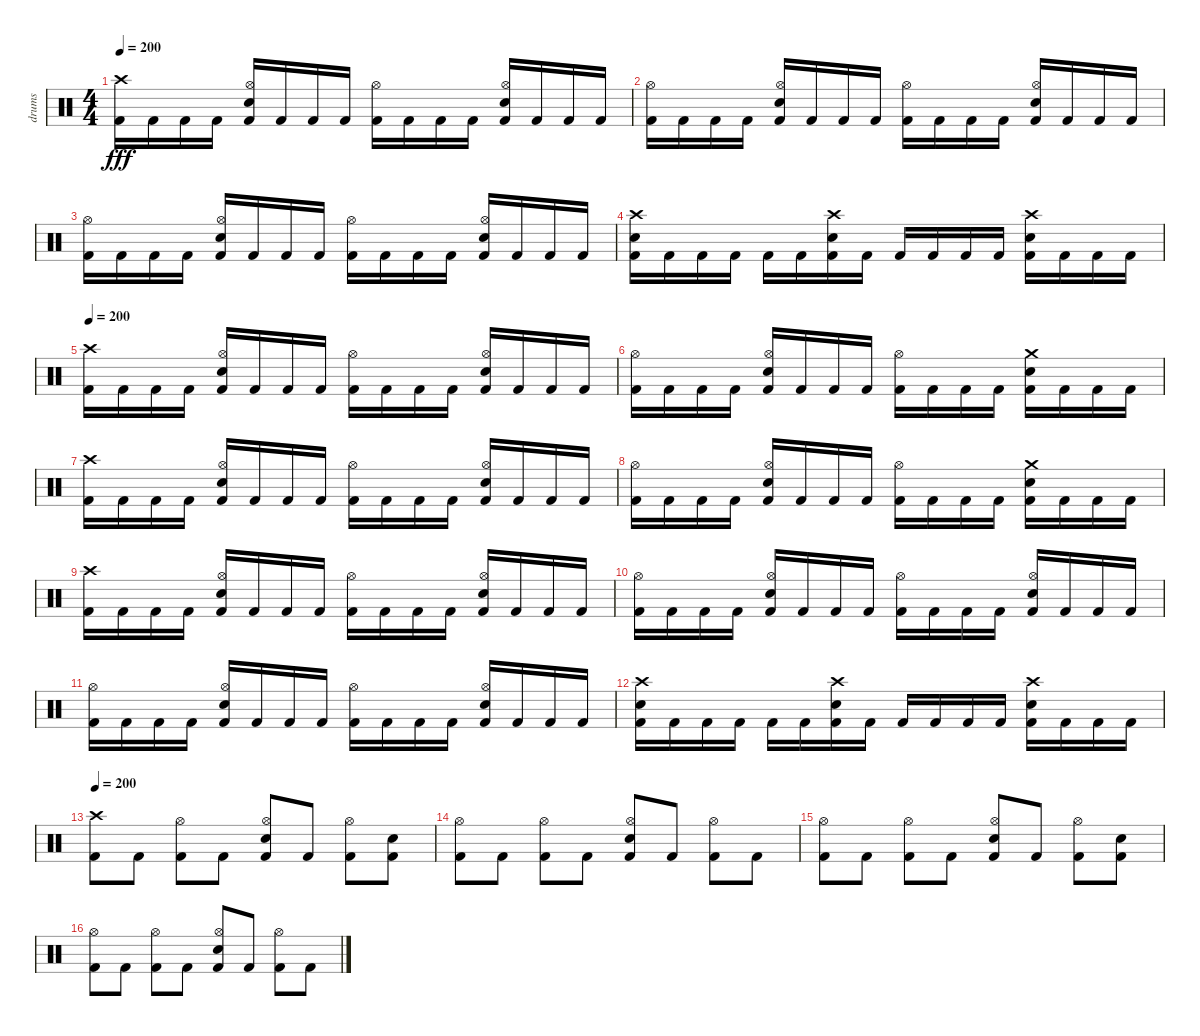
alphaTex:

\track ("drums" "drums") {instrument percussion}
\staff {score}
\articulation defaults
\ts (4 4)
\tempo 200
\clef neutral
\ks c
("Crash high (hit)" "Kick (hit) 2").16{dy fff} "Kick (hit) 2".16 "Kick (hit) 2".16 "Kick (hit) 2".16 ("Hi-Hat (open)" "Snare (hit) 2" "Kick (hit) 2").16 "Kick (hit) 2".16 "Kick (hit) 2".16 "Kick (hit) 2".16 ("Hi-Hat (open)" "Kick (hit) 2").16 "Kick (hit) 2".16 "Kick (hit) 2".16 "Kick (hit) 2".16 ("Hi-Hat (open)" "Snare (hit) 2" "Kick (hit) 2").16 "Kick (hit) 2".16 "Kick (hit) 2".16 "Kick (hit) 2".16 |
("Hi-Hat (open)" "Kick (hit) 2").16 "Kick (hit) 2".16 "Kick (hit) 2".16 "Kick (hit) 2".16 ("Hi-Hat (open)" "Snare (hit) 2" "Kick (hit) 2").16 "Kick (hit) 2".16 "Kick (hit) 2".16 "Kick (hit) 2".16 ("Hi-Hat (open)" "Kick (hit) 2").16 "Kick (hit) 2".16 "Kick (hit) 2".16 "Kick (hit) 2".16 ("Hi-Hat (open)" "Snare (hit) 2" "Kick (hit) 2").16 "Kick (hit) 2".16 "Kick (hit) 2".16 "Kick (hit) 2".16 |
("Hi-Hat (open)" "Kick (hit) 2").16 "Kick (hit) 2".16 "Kick (hit) 2".16 "Kick (hit) 2".16 ("Hi-Hat (open)" "Snare (hit) 2" "Kick (hit) 2").16 "Kick (hit) 2".16 "Kick (hit) 2".16 "Kick (hit) 2".16 ("Hi-Hat (open)" "Kick (hit) 2").16 "Kick (hit) 2".16 "Kick (hit) 2".16 "Kick (hit) 2".16 ("Hi-Hat (open)" "Snare (hit) 2" "Kick (hit) 2").16 "Kick (hit) 2".16 "Kick (hit) 2".16 "Kick (hit) 2".16 |
("Crash high (hit)" "Snare (hit) 2" "Kick (hit) 2").16 "Kick (hit) 2".16 "Kick (hit) 2".16 "Kick (hit) 2".16 "Kick (hit) 2".16 "Kick (hit) 2".16 ("Crash high (hit)" "Snare (hit) 2" "Kick (hit) 2").16 "Kick (hit) 2".16 "Kick (hit) 2".16 "Kick (hit) 2".16 "Kick (hit) 2".16 "Kick (hit) 2".16 ("Crash high (hit)" "Snare (hit) 2" "Kick (hit) 2").16 "Kick (hit) 2".16 "Kick (hit) 2".16 "Kick (hit) 2".16 |
\tempo 200
("Crash high (hit)" "Kick (hit) 2").16 "Kick (hit) 2".16 "Kick (hit) 2".16 "Kick (hit) 2".16 ("Hi-Hat (open)" "Snare (hit) 2" "Kick (hit) 2").16 "Kick (hit) 2".16 "Kick (hit) 2".16 "Kick (hit) 2".16 ("Hi-Hat (open)" "Kick (hit) 2").16 "Kick (hit) 2".16 "Kick (hit) 2".16 "Kick (hit) 2".16 ("Hi-Hat (open)" "Snare (hit) 2" "Kick (hit) 2").16 "Kick (hit) 2".16 "Kick (hit) 2".16 "Kick (hit) 2".16 |
("Hi-Hat (open)" "Kick (hit) 2").16 "Kick (hit) 2".16 "Kick (hit) 2".16 "Kick (hit) 2".16 ("Hi-Hat (open)" "Snare (hit) 2" "Kick (hit) 2").16 "Kick (hit) 2".16 "Kick (hit) 2".16 "Kick (hit) 2".16 ("Hi-Hat (open)" "Kick (hit) 2").16 "Kick (hit) 2".16 "Kick (hit) 2".16 "Kick (hit) 2".16 ("Crash medium (hit)" "Snare (hit) 2" "Kick (hit) 2").16 "Kick (hit) 2".16 "Kick (hit) 2".16 "Kick (hit) 2".16 |
("Crash high (hit)" "Kick (hit) 2").16 "Kick (hit) 2".16 "Kick (hit) 2".16 "Kick (hit) 2".16 ("Hi-Hat (open)" "Snare (hit) 2" "Kick (hit) 2").16 "Kick (hit) 2".16 "Kick (hit) 2".16 "Kick (hit) 2".16 ("Hi-Hat (open)" "Kick (hit) 2").16 "Kick (hit) 2".16 "Kick (hit) 2".16 "Kick (hit) 2".16 ("Hi-Hat (open)" "Snare (hit) 2" "Kick (hit) 2").16 "Kick (hit) 2".16 "Kick (hit) 2".16 "Kick (hit) 2".16 |
("Hi-Hat (open)" "Kick (hit) 2").16 "Kick (hit) 2".16 "Kick (hit) 2".16 "Kick (hit) 2".16 ("Hi-Hat (open)" "Snare (hit) 2" "Kick (hit) 2").16 "Kick (hit) 2".16 "Kick (hit) 2".16 "Kick (hit) 2".16 ("Hi-Hat (open)" "Kick (hit) 2").16 "Kick (hit) 2".16 "Kick (hit) 2".16 "Kick (hit) 2".16 ("Crash medium (hit)" "Snare (hit) 2" "Kick (hit) 2").16 "Kick (hit) 2".16 "Kick (hit) 2".16 "Kick (hit) 2".16 |
("Crash high (hit)" "Kick (hit) 2").16 "Kick (hit) 2".16 "Kick (hit) 2".16 "Kick (hit) 2".16 ("Hi-Hat (open)" "Snare (hit) 2" "Kick (hit) 2").16 "Kick (hit) 2".16 "Kick (hit) 2".16 "Kick (hit) 2".16 ("Hi-Hat (open)" "Kick (hit) 2").16 "Kick (hit) 2".16 "Kick (hit) 2".16 "Kick (hit) 2".16 ("Hi-Hat (open)" "Snare (hit) 2" "Kick (hit) 2").16 "Kick (hit) 2".16 "Kick (hit) 2".16 "Kick (hit) 2".16 |
("Hi-Hat (open)" "Kick (hit) 2").16 "Kick (hit) 2".16 "Kick (hit) 2".16 "Kick (hit) 2".16 ("Hi-Hat (open)" "Snare (hit) 2" "Kick (hit) 2").16 "Kick (hit) 2".16 "Kick (hit) 2".16 "Kick (hit) 2".16 ("Hi-Hat (open)" "Kick (hit) 2").16 "Kick (hit) 2".16 "Kick (hit) 2".16 "Kick (hit) 2".16 ("Hi-Hat (open)" "Snare (hit) 2" "Kick (hit) 2").16 "Kick (hit) 2".16 "Kick (hit) 2".16 "Kick (hit) 2".16 |
("Hi-Hat (open)" "Kick (hit) 2").16 "Kick (hit) 2".16 "Kick (hit) 2".16 "Kick (hit) 2".16 ("Hi-Hat (open)" "Snare (hit) 2" "Kick (hit) 2").16 "Kick (hit) 2".16 "Kick (hit) 2".16 "Kick (hit) 2".16 ("Hi-Hat (open)" "Kick (hit) 2").16 "Kick (hit) 2".16 "Kick (hit) 2".16 "Kick (hit) 2".16 ("Hi-Hat (open)" "Snare (hit) 2" "Kick (hit) 2").16 "Kick (hit) 2".16 "Kick (hit) 2".16 "Kick (hit) 2".16 |
("Crash high (hit)" "Snare (hit) 2" "Kick (hit) 2").16 "Kick (hit) 2".16 "Kick (hit) 2".16 "Kick (hit) 2".16 "Kick (hit) 2".16 "Kick (hit) 2".16 ("Crash high (hit)" "Snare (hit) 2" "Kick (hit) 2").16 "Kick (hit) 2".16 "Kick (hit) 2".16 "Kick (hit) 2".16 "Kick (hit) 2".16 "Kick (hit) 2".16 ("Crash high (hit)" "Snare (hit) 2" "Kick (hit) 2").16 "Kick (hit) 2".16 "Kick (hit) 2".16 "Kick (hit) 2".16 |
\tempo 200
("Crash high (hit)" "Kick (hit) 2").8 "Kick (hit) 2".8 ("Hi-Hat (open)" "Kick (hit) 2").8 "Kick (hit) 2".8 ("Hi-Hat (open)" "Snare (hit) 2" "Kick (hit) 2").8 "Kick (hit) 2".8 ("Hi-Hat (open)" "Kick (hit) 2").8 ("Snare (hit) 2" "Kick (hit) 2").8 |
("Hi-Hat (open)" "Kick (hit) 2").8 "Kick (hit) 2".8 ("Hi-Hat (open)" "Kick (hit) 2").8 "Kick (hit) 2".8 ("Hi-Hat (open)" "Snare (hit) 2" "Kick (hit) 2").8 "Kick (hit) 2".8 ("Hi-Hat (open)" "Kick (hit) 2").8 "Kick (hit) 2".8 |
("Hi-Hat (open)" "Kick (hit) 2").8 "Kick (hit) 2".8 ("Hi-Hat (open)" "Kick (hit) 2").8 "Kick (hit) 2".8 ("Hi-Hat (open)" "Snare (hit) 2" "Kick (hit) 2").8 "Kick (hit) 2".8 ("Hi-Hat (open)" "Kick (hit) 2").8 ("Snare (hit) 2" "Kick (hit) 2").8 |
("Hi-Hat (open)" "Kick (hit) 2").8 "Kick (hit) 2".8 ("Hi-Hat (open)" "Kick (hit) 2").8 "Kick (hit) 2".8 ("Hi-Hat (open)" "Snare (hit) 2" "Kick (hit) 2").8 "Kick (hit) 2".8 ("Hi-Hat (open)" "Kick (hit) 2").8 "Kick (hit) 2".8
